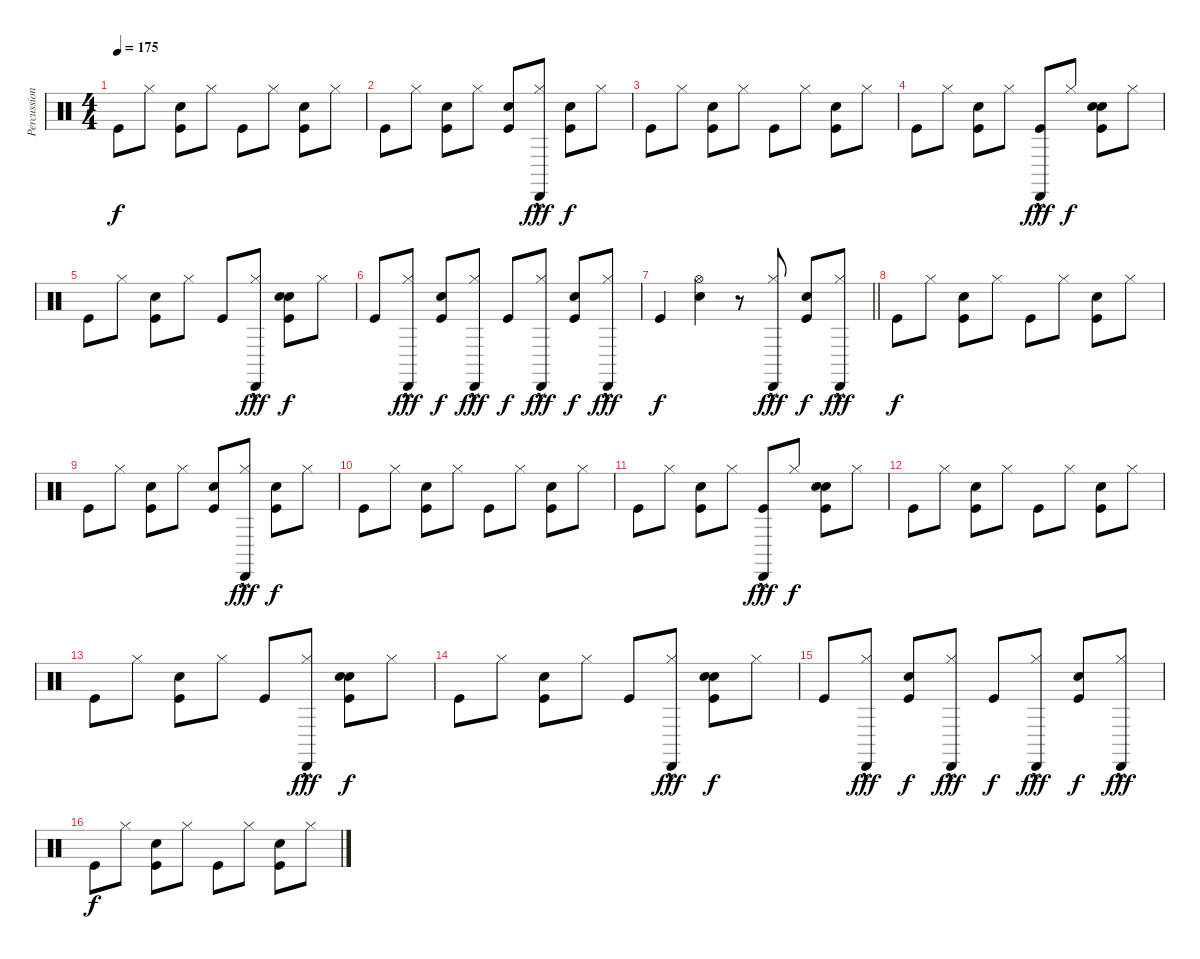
\track ("Percussion" "Percussion") {instrument percussion}
\staff {score}
\articulation defaults
\ts (4 4)
\tempo 175
\clef neutral
\ks c "Kick (hit)".8{dy f} "Hi-Hat (closed)".8
("Kick (hit)" "Snare (hit) 2").8 "Hi-Hat (closed)".8 "Kick (hit)".8 "Hi-Hat (closed)".8 ("Kick (hit)" "Snare (hit) 2").8 "Hi-Hat (closed)".8 |
"Kick (hit)".8 "Hi-Hat (closed)".8 ("Kick (hit)" "Snare (hit) 2").8 "Hi-Hat (closed)".8 ("Kick (hit)" "Hand Clap (hit)").8 ("Hi-Hat (closed)" "Cabasa (hit)"{hac}).8{dy fff} ("Kick (hit)" "Snare (hit) 2").8{dy f} "Hi-Hat (closed)".8 |
"Kick (hit)".8 "Hi-Hat (closed)".8 ("Kick (hit)" "Snare (hit) 2").8 "Hi-Hat (closed)".8 "Kick (hit)".8 "Hi-Hat (closed)".8 ("Kick (hit)" "Snare (hit) 2").8 "Hi-Hat (closed)".8 |
"Kick (hit)".8 "Hi-Hat (closed)".8 ("Kick (hit)" "Snare (hit) 2").8 "Hi-Hat (closed)".8 ("Kick (hit)" "Cabasa (hit)"{hac}).8{dy fff} "Hi-Hat (closed)".8{dy f} ("Kick (hit)" "Snare (hit) 2" "Hand Clap (hit)").8 "Hi-Hat (closed)".8 |
"Kick (hit)".8 "Hi-Hat (closed)".8 ("Kick (hit)" "Snare (hit) 2").8 "Hi-Hat (closed)".8 "Kick (hit)".8 ("Hi-Hat (closed)" "Cabasa (hit)"{hac}).8{dy fff} ("Kick (hit)" "Snare (hit) 2" "Hand Clap (hit)").8{dy f} "Hi-Hat (closed)".8 |
"Kick (hit)".8 ("Hi-Hat (closed)" "Cabasa (hit)"{hac}).8{dy fff} ("Kick (hit)" "Snare (hit) 2").8{dy f} ("Hi-Hat (closed)" "Cabasa (hit)"{hac}).8{dy fff} "Kick (hit)".8{dy f} ("Hi-Hat (closed)" "Cabasa (hit)"{hac}).8{dy fff} ("Kick (hit)" "Snare (hit) 2").8{dy f} ("Hi-Hat (closed)" "Cabasa (hit)"{hac}).8{dy fff} |
\barLineRight lightlight "Kick (hit)".4{dy f}
("Snare (hit) 2" "Hi-Hat (open)").4 r.8 ("Hi-Hat (closed)" "Cabasa (hit)"{hac}).8{dy fff} ("Kick (hit)" "Snare (hit) 2").8{dy f} ("Hi-Hat (closed)" "Cabasa (hit)"{hac}).8{dy fff} |
"Kick (hit)".8{dy f} "Hi-Hat (closed)".8 ("Kick (hit)" "Snare (hit) 2").8 "Hi-Hat (closed)".8 "Kick (hit)".8 "Hi-Hat (closed)".8 ("Kick (hit)" "Snare (hit) 2").8 "Hi-Hat (closed)".8 |
"Kick (hit)".8 "Hi-Hat (closed)".8 ("Kick (hit)" "Snare (hit) 2").8 "Hi-Hat (closed)".8 ("Kick (hit)" "Hand Clap (hit)").8 ("Hi-Hat (closed)" "Cabasa (hit)"{hac}).8{dy fff} ("Kick (hit)" "Snare (hit) 2").8{dy f} "Hi-Hat (closed)".8 |
"Kick (hit)".8 "Hi-Hat (closed)".8 ("Kick (hit)" "Snare (hit) 2").8 "Hi-Hat (closed)".8 "Kick (hit)".8 "Hi-Hat (closed)".8 ("Kick (hit)" "Snare (hit) 2").8 "Hi-Hat (closed)".8 |
"Kick (hit)".8 "Hi-Hat (closed)".8 ("Kick (hit)" "Snare (hit) 2").8 "Hi-Hat (closed)".8 ("Kick (hit)" "Cabasa (hit)"{hac}).8{dy fff} "Hi-Hat (closed)".8{dy f} ("Kick (hit)" "Snare (hit) 2" "Hand Clap (hit)").8 "Hi-Hat (closed)".8 |
"Kick (hit)".8 "Hi-Hat (closed)".8 ("Kick (hit)" "Snare (hit) 2").8 "Hi-Hat (closed)".8 "Kick (hit)".8 "Hi-Hat (closed)".8 ("Kick (hit)" "Snare (hit) 2").8 "Hi-Hat (closed)".8 |
"Kick (hit)".8 "Hi-Hat (closed)".8 ("Kick (hit)" "Snare (hit) 2").8 "Hi-Hat (closed)".8 "Kick (hit)".8 ("Hi-Hat (closed)" "Cabasa (hit)"{hac}).8{dy fff} ("Kick (hit)" "Snare (hit) 2" "Hand Clap (hit)").8{dy f} "Hi-Hat (closed)".8 |
"Kick (hit)".8 "Hi-Hat (closed)".8 ("Kick (hit)" "Snare (hit) 2").8 "Hi-Hat (closed)".8 "Kick (hit)".8 ("Hi-Hat (closed)" "Cabasa (hit)"{hac}).8{dy fff} ("Kick (hit)" "Snare (hit) 2" "Hand Clap (hit)").8{dy f} "Hi-Hat (closed)".8 |
"Kick (hit)".8 ("Hi-Hat (closed)" "Cabasa (hit)"{hac}).8{dy fff} ("Kick (hit)" "Snare (hit) 2").8{dy f} ("Hi-Hat (closed)" "Cabasa (hit)"{hac}).8{dy fff} "Kick (hit)".8{dy f} ("Hi-Hat (closed)" "Cabasa (hit)"{hac}).8{dy fff} ("Kick (hit)" "Snare (hit) 2").8{dy f} ("Hi-Hat (closed)" "Cabasa (hit)"{hac}).8{dy fff} |
"Kick (hit)".8{dy f} "Hi-Hat (closed)".8 ("Kick (hit)" "Snare (hit) 2").8 "Hi-Hat (closed)".8 "Kick (hit)".8 "Hi-Hat (closed)".8 ("Kick (hit)" "Snare (hit) 2").8 "Hi-Hat (closed)".8
